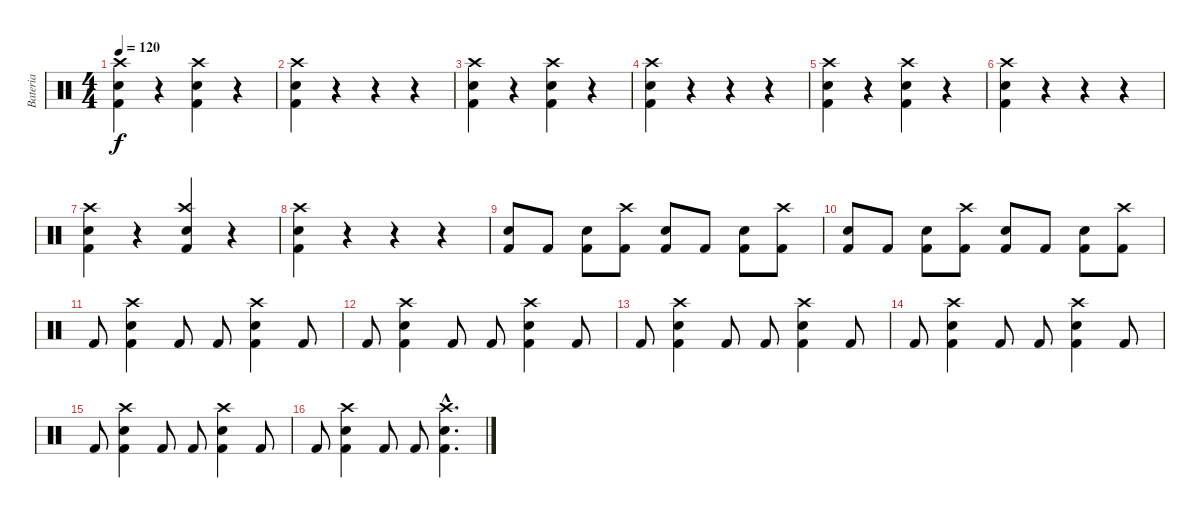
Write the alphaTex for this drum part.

\track ("Bateria" "Bateria") {instrument percussion}
\staff {score}
\articulation defaults
\ts (4 4)
\tempo 120
\clef neutral
\ks c
("Kick (hit) 2" "Electric Snare (hit)" "Crash high (hit)").4{dy f} r.4 ("Kick (hit) 2" "Crash high (hit)" "Electric Snare (hit)").4 r.4 |
("Kick (hit) 2" "Electric Snare (hit)" "Crash high (hit)").4 r.4 r.4 r.4 |
("Kick (hit) 2" "Electric Snare (hit)" "Crash high (hit)").4 r.4 ("Kick (hit) 2" "Crash high (hit)" "Electric Snare (hit)").4 r.4 |
("Kick (hit) 2" "Electric Snare (hit)" "Crash high (hit)").4 r.4 r.4 r.4 |
("Kick (hit) 2" "Electric Snare (hit)" "Crash high (hit)").4 r.4 ("Kick (hit) 2" "Crash high (hit)" "Electric Snare (hit)").4 r.4 |
("Kick (hit) 2" "Electric Snare (hit)" "Crash high (hit)").4 r.4 r.4 r.4 |
("Kick (hit) 2" "Electric Snare (hit)" "Crash high (hit)").4 r.4 ("Kick (hit) 2" "Crash high (hit)" "Snare (hit) 2").4 r.4 |
("Kick (hit) 2" "Electric Snare (hit)" "Crash high (hit)").4 r.4 r.4 r.4 |
("Kick (hit) 2" "Electric Snare (hit)").8 "Kick (hit) 2".8 ("Kick (hit) 2" "Electric Snare (hit)").8 ("Kick (hit) 2" "Crash high (hit)").8 ("Kick (hit) 2" "Electric Snare (hit)").8 "Kick (hit) 2".8 ("Kick (hit) 2" "Electric Snare (hit)").8 ("Kick (hit) 2" "Crash high (hit)").8 |
("Kick (hit) 2" "Electric Snare (hit)").8 "Kick (hit) 2".8 ("Kick (hit) 2" "Electric Snare (hit)").8 ("Kick (hit) 2" "Crash high (hit)").8 ("Kick (hit) 2" "Electric Snare (hit)").8 "Kick (hit) 2".8 ("Kick (hit) 2" "Electric Snare (hit)").8 ("Kick (hit) 2" "Crash high (hit)").8 |
"Kick (hit) 2".8 ("Kick (hit) 2" "Crash high (hit)" "Electric Snare (hit)").4 "Kick (hit) 2".8 "Kick (hit) 2".8 ("Kick (hit) 2" "Electric Snare (hit)" "Crash high (hit)").4 "Kick (hit) 2".8 |
"Kick (hit) 2".8 ("Kick (hit) 2" "Crash high (hit)" "Electric Snare (hit)").4 "Kick (hit) 2".8 "Kick (hit) 2".8 ("Kick (hit) 2" "Electric Snare (hit)" "Crash high (hit)").4 "Kick (hit) 2".8 |
"Kick (hit) 2".8 ("Kick (hit) 2" "Crash high (hit)" "Electric Snare (hit)").4 "Kick (hit) 2".8 "Kick (hit) 2".8 ("Kick (hit) 2" "Electric Snare (hit)" "Crash high (hit)").4 "Kick (hit) 2".8 |
"Kick (hit) 2".8 ("Kick (hit) 2" "Crash high (hit)" "Electric Snare (hit)").4 "Kick (hit) 2".8 "Kick (hit) 2".8 ("Kick (hit) 2" "Electric Snare (hit)" "Crash high (hit)").4 "Kick (hit) 2".8 |
"Kick (hit) 2".8 ("Kick (hit) 2" "Crash high (hit)" "Electric Snare (hit)").4 "Kick (hit) 2".8 "Kick (hit) 2".8 ("Kick (hit) 2" "Crash high (hit)" "Electric Snare (hit)").4 "Kick (hit) 2".8 |
"Kick (hit) 2".8 ("Kick (hit) 2" "Crash high (hit)" "Electric Snare (hit)").4 "Kick (hit) 2".8 "Kick (hit) 2".8 ("Kick (hit) 2"{hac} "Electric Snare (hit)"{hac} "Crash high (hit)"{hac}).4{d}
